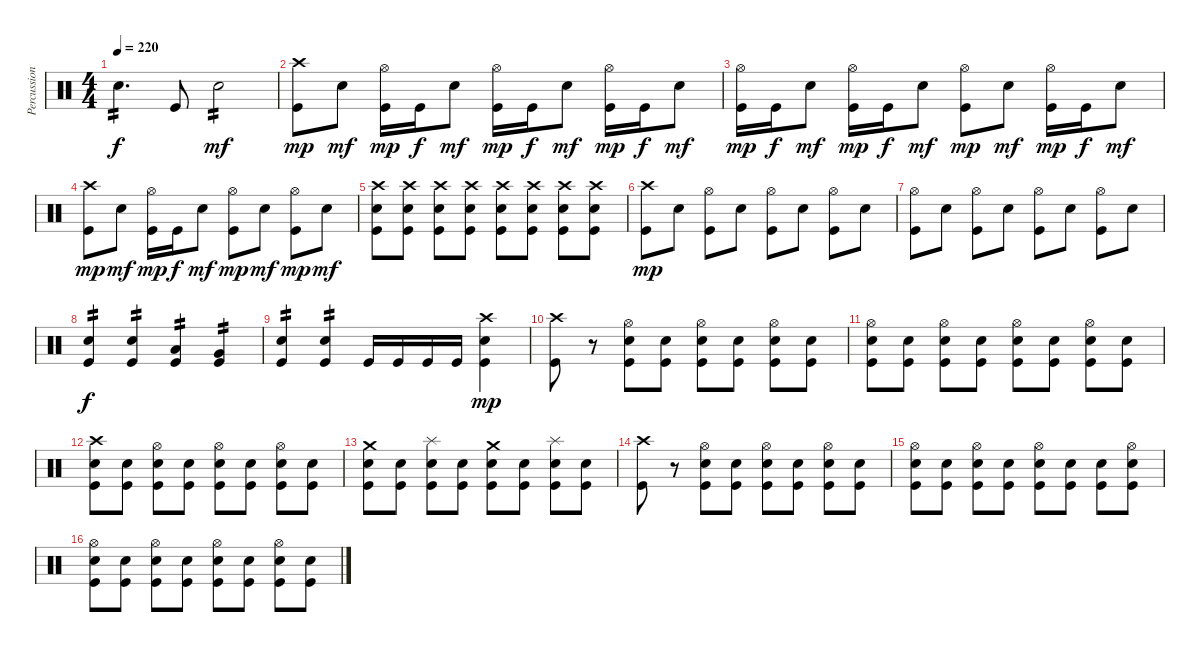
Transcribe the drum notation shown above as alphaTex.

\track ("Percussion" "Percussion") {instrument percussion}
\staff {score}
\articulation defaults
\ts (4 4)
\tempo 220
\clef neutral
\ks c "Electric Snare (hit)".4{d tp 2 dy f} "Kick (hit)".8 "Electric Snare (hit)".2{tp 2 dy mf}
|
("Crash high (hit)" "Kick (hit)").8{dy mp} "Electric Snare (hit)".8{dy mf} ("Hi-Hat (open)" "Kick (hit)").16{dy mp} "Kick (hit)".16{dy f} "Electric Snare (hit)".8{dy mf} ("Hi-Hat (open)" "Kick (hit)").16{dy mp} "Kick (hit)".16{dy f} "Electric Snare (hit)".8{dy mf} ("Hi-Hat (open)" "Kick (hit)").16{dy mp} "Kick (hit)".16{dy f} "Electric Snare (hit)".8{dy mf} |
("Hi-Hat (open)" "Kick (hit)").16{dy mp} "Kick (hit)".16{dy f} "Electric Snare (hit)".8{dy mf} ("Hi-Hat (open)" "Kick (hit)").16{dy mp} "Kick (hit)".16{dy f} "Electric Snare (hit)".8{dy mf} ("Hi-Hat (open)" "Kick (hit)").8{dy mp} "Electric Snare (hit)".8{dy mf} ("Hi-Hat (open)" "Kick (hit)").16{dy mp} "Kick (hit)".16{dy f} "Electric Snare (hit)".8{dy mf} |
("Crash high (hit)" "Kick (hit)").8{dy mp} "Electric Snare (hit)".8{dy mf} ("Hi-Hat (open)" "Kick (hit)").16{dy mp} "Kick (hit)".16{dy f} "Electric Snare (hit)".8{dy mf} ("Hi-Hat (open)" "Kick (hit)").8{dy mp} "Electric Snare (hit)".8{dy mf} ("Hi-Hat (open)" "Kick (hit)").8{dy mp} "Electric Snare (hit)".8{dy mf} |
("Crash high (hit)" "Electric Snare (hit)" "Kick (hit)").8 ("Crash high (hit)" "Electric Snare (hit)" "Kick (hit)").8 ("Crash high (hit)" "Electric Snare (hit)" "Kick (hit)").8 ("Crash high (hit)" "Electric Snare (hit)" "Kick (hit)").8 ("Crash high (hit)" "Electric Snare (hit)" "Kick (hit)").8 ("Crash high (hit)" "Electric Snare (hit)" "Kick (hit)").8 ("Crash high (hit)" "Electric Snare (hit)" "Kick (hit)").8 ("Crash high (hit)" "Electric Snare (hit)" "Kick (hit)").8 |
("Crash high (hit)" "Kick (hit)").8{dy mp} "Electric Snare (hit)".8 ("Hi-Hat (open)" "Kick (hit)").8 "Electric Snare (hit)".8 ("Hi-Hat (open)" "Kick (hit)").8 "Electric Snare (hit)".8 ("Hi-Hat (open)" "Kick (hit)").8 "Electric Snare (hit)".8 |
("Hi-Hat (open)" "Kick (hit)").8 "Electric Snare (hit)".8 ("Hi-Hat (open)" "Kick (hit)").8 "Electric Snare (hit)".8 ("Hi-Hat (open)" "Kick (hit)").8 "Electric Snare (hit)".8 ("Hi-Hat (open)" "Kick (hit)").8 "Electric Snare (hit)".8 |
("Electric Snare (hit)" "Kick (hit)").4{tp 2 dy f} ("Electric Snare (hit)" "Kick (hit)").4{tp 2} ("Low Tom (hit)" "Kick (hit)").4{tp 2} ("Very Low Tom (hit)" "Kick (hit)").4{tp 2} |
("Electric Snare (hit)" "Kick (hit)").4{tp 2} ("Electric Snare (hit)" "Kick (hit)").4{tp 2} "Kick (hit)".16 "Kick (hit)".16 "Kick (hit)".16 "Kick (hit)".16 ("Crash high (hit)" "Electric Snare (hit)" "Kick (hit)").4{dy mp} |
("Crash high (hit)" "Kick (hit)").8 r.8 ("Hi-Hat (open)" "Electric Snare (hit)" "Kick (hit)").8 ("Electric Snare (hit)" "Kick (hit)").8 ("Hi-Hat (open)" "Electric Snare (hit)" "Kick (hit)").8 ("Electric Snare (hit)" "Kick (hit)").8 ("Hi-Hat (open)" "Electric Snare (hit)" "Kick (hit)").8 ("Electric Snare (hit)" "Kick (hit)").8 |
("Hi-Hat (open)" "Electric Snare (hit)" "Kick (hit)").8 ("Electric Snare (hit)" "Kick (hit)").8 ("Hi-Hat (open)" "Electric Snare (hit)" "Kick (hit)").8 ("Electric Snare (hit)" "Kick (hit)").8 ("Hi-Hat (open)" "Electric Snare (hit)" "Kick (hit)").8 ("Electric Snare (hit)" "Kick (hit)").8 ("Hi-Hat (open)" "Electric Snare (hit)" "Kick (hit)").8 ("Electric Snare (hit)" "Kick (hit)").8 |
("Crash high (hit)" "Electric Snare (hit)" "Kick (hit)").8 ("Electric Snare (hit)" "Kick (hit)").8 ("Hi-Hat (open)" "Electric Snare (hit)" "Kick (hit)").8 ("Electric Snare (hit)" "Kick (hit)").8 ("Hi-Hat (open)" "Electric Snare (hit)" "Kick (hit)").8 ("Electric Snare (hit)" "Kick (hit)").8 ("Hi-Hat (open)" "Electric Snare (hit)" "Kick (hit)").8 ("Electric Snare (hit)" "Kick (hit)").8 |
("Crash medium (hit)" "Electric Snare (hit)" "Kick (hit)").8 ("Electric Snare (hit)" "Kick (hit)").8 ("Splash (hit)" "Electric Snare (hit)" "Kick (hit)").8 ("Electric Snare (hit)" "Kick (hit)").8 ("Crash medium (hit)" "Electric Snare (hit)" "Kick (hit)").8 ("Electric Snare (hit)" "Kick (hit)").8 ("Splash (hit)" "Electric Snare (hit)" "Kick (hit)").8 ("Electric Snare (hit)" "Kick (hit)").8 |
("Crash high (hit)" "Kick (hit)").8 r.8 ("Hi-Hat (open)" "Electric Snare (hit)" "Kick (hit)").8 ("Electric Snare (hit)" "Kick (hit)").8 ("Hi-Hat (open)" "Electric Snare (hit)" "Kick (hit)").8 ("Electric Snare (hit)" "Kick (hit)").8 ("Hi-Hat (open)" "Electric Snare (hit)" "Kick (hit)").8 ("Electric Snare (hit)" "Kick (hit)").8 |
("Hi-Hat (open)" "Electric Snare (hit)" "Kick (hit)").8 ("Electric Snare (hit)" "Kick (hit)").8 ("Hi-Hat (open)" "Electric Snare (hit)" "Kick (hit)").8 ("Electric Snare (hit)" "Kick (hit)").8 ("Hi-Hat (open)" "Electric Snare (hit)" "Kick (hit)").8 ("Electric Snare (hit)" "Kick (hit)").8 ("Electric Snare (hit)" "Kick (hit)").8 ("Hi-Hat (open)" "Electric Snare (hit)" "Kick (hit)").8 |
("Hi-Hat (open)" "Electric Snare (hit)" "Kick (hit)").8 ("Electric Snare (hit)" "Kick (hit)").8 ("Hi-Hat (open)" "Electric Snare (hit)" "Kick (hit)").8 ("Electric Snare (hit)" "Kick (hit)").8 ("Hi-Hat (open)" "Electric Snare (hit)" "Kick (hit)").8 ("Electric Snare (hit)" "Kick (hit)").8 ("Hi-Hat (open)" "Electric Snare (hit)" "Kick (hit)").8 ("Electric Snare (hit)" "Kick (hit)").8
